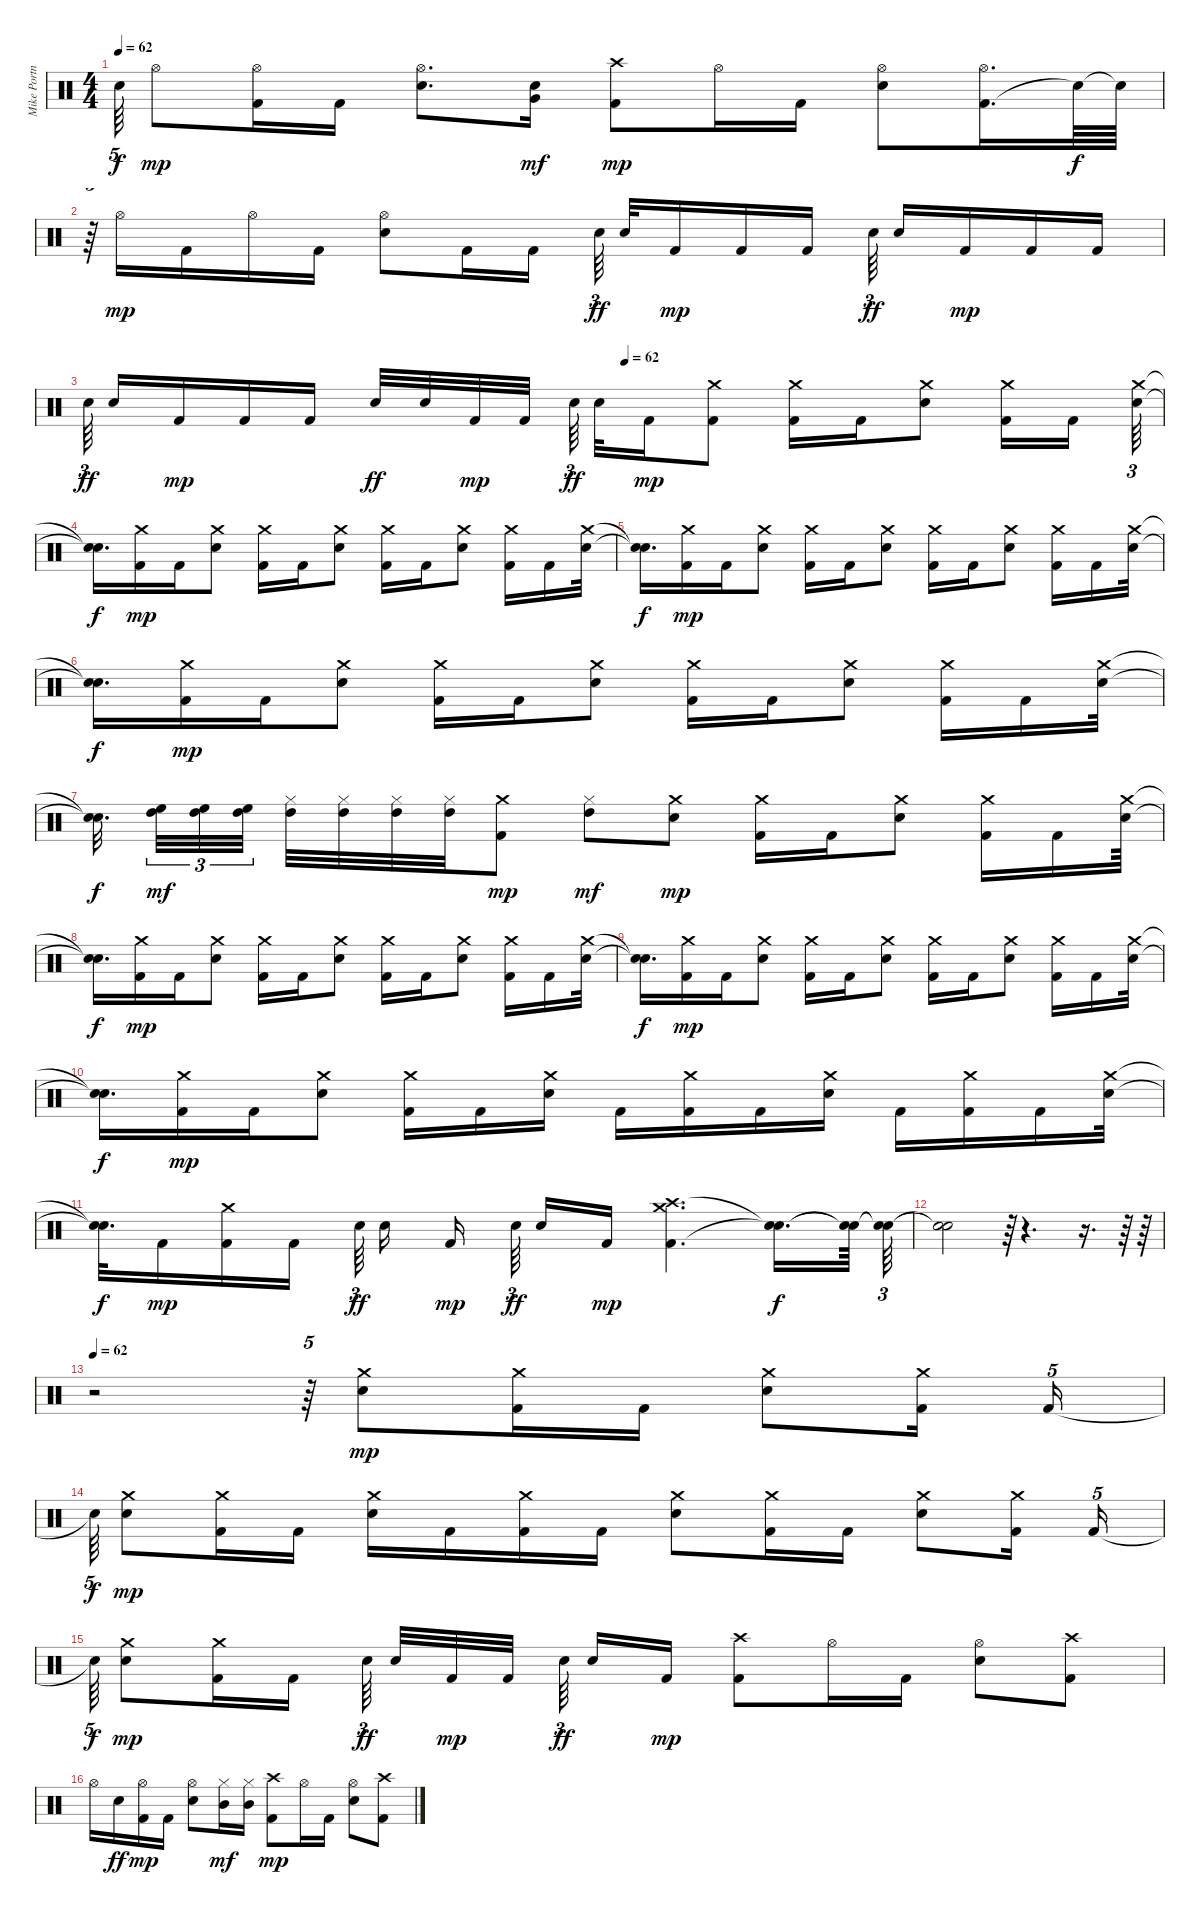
\track ("Mike Portnoy" "Mike Portn") {instrument percussion}
\staff {score}
\articulation defaults
\ts (4 4)
\tempo 62
\clef neutral
\ks c "Snare (hit)"{t}.64{tu (5 4) dy f} "Hi-Hat (open)".8{dy mp}
("Kick (hit) 2" "Hi-Hat (open)").16 "Kick (hit) 2".16 ("Electric Snare (hit)" "Hi-Hat (open)").8{d} ("Snare (hit)" "Very Low Tom (hit)").16{dy mf} ("Kick (hit) 2" "Crash high (hit)").8{dy mp} "Hi-Hat (open)".16 "Kick (hit) 2".16 ("Electric Snare (hit)" "Hi-Hat (open)").8 ("Kick (hit) 2" "Hi-Hat (open)").16{d} "Snare (hit)"{t}.64{dy f} "Snare (hit)"{t}.64 |
r.64{tu (5 4)} "Hi-Hat (open)".16{dy mp} "Kick (hit) 2".16 "Hi-Hat (open)".16 "Kick (hit) 2".16 ("Electric Snare (hit)" "Hi-Hat (open)").8 "Kick (hit) 2".16 "Kick (hit) 2".16 "Electric Snare (hit)".64{tu (3 2) dy ff} "Electric Snare (hit)".32 "Kick (hit) 2".16{dy mp} "Kick (hit) 2".16 "Kick (hit) 2".16 "Electric Snare (hit)".64{tu (3 2) dy ff} "Electric Snare (hit)".16 "Kick (hit) 2".16{dy mp} "Kick (hit) 2".16 "Kick (hit) 2".16 |
\tempo (62 0.5)
"Electric Snare (hit)".64{tu (3 2) dy ff} "Electric Snare (hit)".16 "Kick (hit) 2".16{dy mp} "Kick (hit) 2".16 "Kick (hit) 2".16 "Electric Snare (hit)".32{dy ff} "Electric Snare (hit)".32 "Kick (hit) 2".32{dy mp} "Kick (hit) 2".32 "Electric Snare (hit)".64{tu (3 2) dy ff} "Electric Snare (hit)".32 "Kick (hit) 2".16{dy mp} ("Kick (hit) 2" "Crash medium (hit)").8 ("Kick (hit) 2" "Crash medium (hit)").16 "Kick (hit) 2".16 ("Electric Snare (hit)" "Crash medium (hit)").8 ("Kick (hit) 2" "Crash medium (hit)").16 "Kick (hit) 2".16 ("Electric Snare (hit)" "Crash medium (hit)").64{tu (3 2)} |
("Snare (hit)"{t} "Snare (hit)"{t}).16{d dy f} ("Kick (hit) 2" "Crash medium (hit)").16{dy mp} "Kick (hit) 2".16 ("Electric Snare (hit)" "Crash medium (hit)").8 ("Kick (hit) 2" "Crash medium (hit)").16 "Kick (hit) 2".16 ("Electric Snare (hit)" "Crash medium (hit)").8 ("Kick (hit) 2" "Crash medium (hit)").16 "Kick (hit) 2".16 ("Electric Snare (hit)" "Crash medium (hit)").8 ("Kick (hit) 2" "Crash medium (hit)").16 "Kick (hit) 2".16 ("Electric Snare (hit)" "Crash medium (hit)").32 |
("Snare (hit)"{t} "Snare (hit)"{t}).16{d dy f} ("Kick (hit) 2" "Crash medium (hit)").16{dy mp} "Kick (hit) 2".16 ("Electric Snare (hit)" "Crash medium (hit)").8 ("Kick (hit) 2" "Crash medium (hit)").16 "Kick (hit) 2".16 ("Electric Snare (hit)" "Crash medium (hit)").8 ("Kick (hit) 2" "Crash medium (hit)").16 "Kick (hit) 2".16 ("Electric Snare (hit)" "Crash medium (hit)").8 ("Kick (hit) 2" "Crash medium (hit)").16 "Kick (hit) 2".16 ("Electric Snare (hit)" "Crash medium (hit)").32 |
("Snare (hit)"{t} "Snare (hit)"{t}).16{d dy f} ("Kick (hit) 2" "Crash medium (hit)").16{dy mp} "Kick (hit) 2".16 ("Electric Snare (hit)" "Crash medium (hit)").8 ("Kick (hit) 2" "Crash medium (hit)").16 "Kick (hit) 2".16 ("Electric Snare (hit)" "Crash medium (hit)").8 ("Kick (hit) 2" "Crash medium (hit)").16 "Kick (hit) 2".16 ("Electric Snare (hit)" "Crash medium (hit)").8 ("Kick (hit) 2" "Crash medium (hit)").16 "Kick (hit) 2".16 ("Electric Snare (hit)" "Crash medium (hit)").32 |
("Snare (hit)"{t} "Snare (hit)"{t}).32{d dy f} ("High Tom (hit)" "High Floor Tom (hit)").32{tu (3 2) dy mf balance 0} ("High Tom (hit)" "High Floor Tom (hit)").32{tu (3 2)} ("High Tom (hit)" "High Floor Tom (hit)").32{tu (3 2)} ("Hi-Hat (closed)" "High Tom (hit)").32{balance 2} ("Hi-Hat (closed)" "High Tom (hit)").32 ("Hi-Hat (closed)" "High Tom (hit)").32 ("Hi-Hat (closed)" "High Tom (hit)").32 ("Kick (hit) 2" "Crash medium (hit)").8{dy mp} ("Hi-Hat (closed)" "High Tom (hit)").8{dy mf} ("Electric Snare (hit)" "Crash medium (hit)").8{dy mp} ("Kick (hit) 2" "Crash medium (hit)").16 "Kick (hit) 2".16 ("Electric Snare (hit)" "Crash medium (hit)").8 ("Kick (hit) 2" "Crash medium (hit)").16 "Kick (hit) 2".16 ("Electric Snare (hit)" "Crash medium (hit)").64 |
("Snare (hit)"{t} "Snare (hit)"{t}).16{d dy f} ("Kick (hit) 2" "Crash medium (hit)").16{dy mp} "Kick (hit) 2".16 ("Electric Snare (hit)" "Crash medium (hit)").8 ("Kick (hit) 2" "Crash medium (hit)").16 "Kick (hit) 2".16 ("Electric Snare (hit)" "Crash medium (hit)").8 ("Kick (hit) 2" "Crash medium (hit)").16 "Kick (hit) 2".16 ("Electric Snare (hit)" "Crash medium (hit)").8 ("Kick (hit) 2" "Crash medium (hit)").16 "Kick (hit) 2".16 ("Electric Snare (hit)" "Crash medium (hit)").32 |
("Snare (hit)"{t} "Snare (hit)"{t}).16{d dy f} ("Kick (hit) 2" "Crash medium (hit)").16{dy mp} "Kick (hit) 2".16 ("Electric Snare (hit)" "Crash medium (hit)").8 ("Kick (hit) 2" "Crash medium (hit)").16 "Kick (hit) 2".16 ("Electric Snare (hit)" "Crash medium (hit)").8 ("Kick (hit) 2" "Crash medium (hit)").16 "Kick (hit) 2".16 ("Electric Snare (hit)" "Crash medium (hit)").8 ("Kick (hit) 2" "Crash medium (hit)").16 "Kick (hit) 2".16 ("Electric Snare (hit)" "Crash medium (hit)").32 |
("Snare (hit)"{t} "Snare (hit)"{t}).16{d dy f} ("Kick (hit) 2" "Crash medium (hit)").16{dy mp} "Kick (hit) 2".16 ("Electric Snare (hit)" "Crash medium (hit)").8 ("Kick (hit) 2" "Crash medium (hit)").16 "Kick (hit) 2".16 ("Electric Snare (hit)" "Crash medium (hit)").16 "Kick (hit) 2".16 ("Kick (hit) 2" "Crash medium (hit)").16 "Kick (hit) 2".16 ("Electric Snare (hit)" "Crash medium (hit)").16 "Kick (hit) 2".16 ("Kick (hit) 2" "Crash medium (hit)").16 "Kick (hit) 2".16 ("Electric Snare (hit)" "Crash medium (hit)").32 |
("Snare (hit)"{t} "Snare (hit)"{t}).32{d dy f} "Kick (hit) 2".16{dy mp} ("Kick (hit) 2" "Crash medium (hit)").16 "Kick (hit) 2".16 "Electric Snare (hit)".64{tu (3 2) dy ff} "Electric Snare (hit)".16 "Kick (hit) 2".16{dy mp} "Electric Snare (hit)".64{tu (3 2) dy ff} "Electric Snare (hit)".16 "Kick (hit) 2".16{dy mp} ("Kick (hit) 2" "Crash high (hit)" "Crash medium (hit)").4{d} ("Snare (hit)"{t} "Snare (hit)"{t}).16{d dy f} ("Snare (hit)"{t} "Snare (hit)"{t}).64 ("Snare (hit)"{t} "Snare (hit)"{t}).64{tu (3 2)} |
("Snare (hit)"{t} "Snare (hit)"{t}).2 r.64{tu (5 4)} r.4{d} r.16{d} r.64 r.64 |
\tempo 62
r.2 r.64{tu (5 4)} ("Electric Snare (hit)" "Crash medium (hit)").8{dy mp} ("Kick (hit) 2" "Crash medium (hit)").16 "Kick (hit) 2".16 ("Electric Snare (hit)" "Crash medium (hit)").8 ("Kick (hit) 2" "Crash medium (hit)").16 "Kick (hit) 2".16{tu (5 4)} |
"Snare (hit)"{t}.64{tu (5 4) dy f} ("Electric Snare (hit)" "Crash medium (hit)").8{dy mp} ("Kick (hit) 2" "Crash medium (hit)").16 "Kick (hit) 2".16 ("Electric Snare (hit)" "Crash medium (hit)").16 "Kick (hit) 2".16 ("Kick (hit) 2" "Crash medium (hit)").16 "Kick (hit) 2".16 ("Electric Snare (hit)" "Crash medium (hit)").8 ("Kick (hit) 2" "Crash medium (hit)").16 "Kick (hit) 2".16 ("Electric Snare (hit)" "Crash medium (hit)").8 ("Kick (hit) 2" "Crash medium (hit)").16 "Kick (hit) 2".16{tu (5 4)} |
"Snare (hit)"{t}.64{tu (5 4) dy f} ("Electric Snare (hit)" "Crash medium (hit)").8{dy mp} ("Kick (hit) 2" "Crash medium (hit)").16 "Kick (hit) 2".16 "Electric Snare (hit)".64{tu (3 2) dy ff} "Electric Snare (hit)".32 "Kick (hit) 2".32{dy mp} "Kick (hit) 2".32 "Electric Snare (hit)".64{tu (3 2) dy ff} "Electric Snare (hit)".16 "Kick (hit) 2".16{dy mp} ("Kick (hit) 2" "Crash high (hit)").8 "Hi-Hat (open)".16 "Kick (hit) 2".16 ("Electric Snare (hit)" "Hi-Hat (open)").8 ("Kick (hit) 2" "Crash high (hit)").8 |
"Hi-Hat (open)".16 "Electric Snare (hit)".16{dy ff} ("Kick (hit) 2" "Hi-Hat (open)").16{dy mp} "Kick (hit) 2".16 ("Electric Snare (hit)" "Hi-Hat (open)").8 ("Hi-Hat (closed)" "Mid Tom (hit)").16{dy mf} ("Hi-Hat (closed)" "Mid Tom (hit)").16 ("Kick (hit) 2" "Crash high (hit)").8{dy mp} "Hi-Hat (open)".16 "Kick (hit) 2".16 ("Electric Snare (hit)" "Hi-Hat (open)").8 ("Kick (hit) 2" "Crash high (hit)").8
